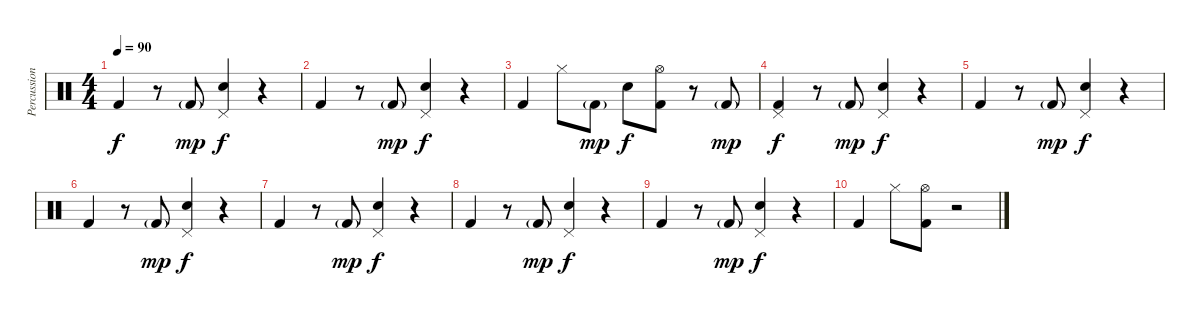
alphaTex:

\track ("Percussion" "Percussion") {instrument percussion}
\staff {score}
\articulation defaults
\ts (4 4)
\tempo 90
\clef neutral
\ks c "Kick (hit) 2".4{dy f}
r.8 "Kick (hit) 2"{g}.8{dy mp} ("Pedal Hi-Hat (hit)" "Snare (hit) 2").4{dy f} r.4 |
"Kick (hit) 2".4 r.8 "Kick (hit) 2"{g}.8{dy mp} ("Pedal Hi-Hat (hit)" "Snare (hit) 2").4{dy f} r.4 |
"Kick (hit) 2".4 "Hi-Hat (closed)".8 "Kick (hit) 2"{g}.8{dy mp} "Snare (hit) 2".8{dy f} ("Hi-Hat (open)" "Kick (hit) 2").8 r.8 "Kick (hit) 2"{g}.8{dy mp} |
("Pedal Hi-Hat (hit)" "Kick (hit) 2").4{dy f} r.8 "Kick (hit) 2"{g}.8{dy mp} ("Pedal Hi-Hat (hit)" "Snare (hit) 2").4{dy f} r.4 |
"Kick (hit) 2".4 r.8 "Kick (hit) 2"{g}.8{dy mp} ("Pedal Hi-Hat (hit)" "Snare (hit) 2").4{dy f} r.4 |
"Kick (hit) 2".4 r.8 "Kick (hit) 2"{g}.8{dy mp} ("Pedal Hi-Hat (hit)" "Snare (hit) 2").4{dy f} r.4 |
"Kick (hit) 2".4 r.8 "Kick (hit) 2"{g}.8{dy mp} ("Pedal Hi-Hat (hit)" "Snare (hit) 2").4{dy f} r.4 |
"Kick (hit) 2".4 r.8 "Kick (hit) 2"{g}.8{dy mp} ("Pedal Hi-Hat (hit)" "Snare (hit) 2").4{dy f} r.4 |
"Kick (hit) 2".4 r.8 "Kick (hit) 2"{g}.8{dy mp} ("Pedal Hi-Hat (hit)" "Snare (hit) 2").4{dy f} r.4 |
"Kick (hit) 2".4 "Hi-Hat (closed)".8 ("Hi-Hat (open)" "Kick (hit) 2").8 r.2
